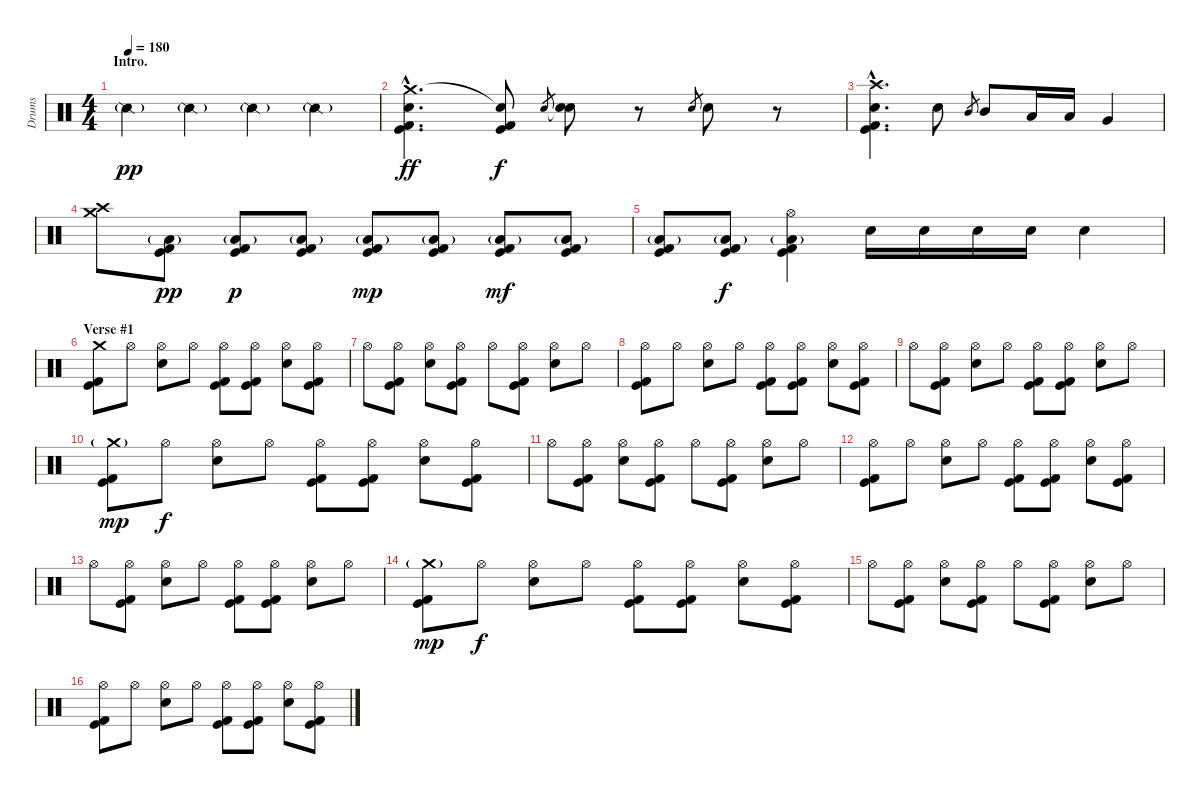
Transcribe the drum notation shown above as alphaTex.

\track ("Drums" "Drums") {instrument percussion}
\staff {score}
\articulation defaults
\ts (4 4)
\section ("" "Intro.")
\tempo 180
\clef neutral
\ks c "Snare (side stick) 2"{g}.4{dy pp} "Snare (side stick) 2"{g}.4 "Snare (side stick) 2"{g}.4 "Snare (side stick) 2"{g}.4
|
("Crash medium (hit)"{hac} "Electric Snare (hit)"{hac} "Kick (hit) 2"{hac} "Kick (hit)"{hac}).4{d dy ff} ("Snare (hit)"{t} "Kick (hit) 2" "Kick (hit)").8{dy f} "Electric Snare (hit)".8{gr} ("Snare (hit)"{t} "Electric Snare (hit)").8 r.8 "Electric Snare (hit)".8{gr} "Electric Snare (hit)".8 r.8 |
("Crash high (hit)"{hac} "Electric Snare (hit)"{hac} "Kick (hit) 2"{hac} "Kick (hit)"{hac}).4{d} "Electric Snare (hit)".8 "Mid Tom (hit)".8{gr} "Mid Tom (hit)".8 "Low Tom (hit)".16 "Low Tom (hit)".16 "Very Low Tom (hit)".4 |
("Crash medium (hit)" "Crash high (hit)").8 ("Low Floor Tom (hit)"{g} "Kick (hit) 2" "Kick (hit)").8{dy pp} ("Low Floor Tom (hit)"{g} "Kick (hit) 2" "Kick (hit)").8{dy p} ("Low Floor Tom (hit)"{g} "Kick (hit) 2" "Kick (hit)").8 ("Low Floor Tom (hit)"{g} "Kick (hit) 2" "Kick (hit)").8{dy mp} ("Low Floor Tom (hit)"{g} "Kick (hit) 2" "Kick (hit)").8 ("Low Floor Tom (hit)"{g} "Kick (hit) 2" "Kick (hit)").8{dy mf} ("Low Floor Tom (hit)"{g} "Kick (hit) 2" "Kick (hit)").8 |
("Low Floor Tom (hit)"{g} "Kick (hit) 2" "Kick (hit)").8 ("Low Floor Tom (hit)"{g} "Kick (hit) 2" "Kick (hit)").8{dy f} ("Hi-Hat (open)" "Low Floor Tom (hit)"{g} "Kick (hit) 2" "Kick (hit)").4 "Electric Snare (hit)".16 "Electric Snare (hit)".16 "Electric Snare (hit)".16 "Electric Snare (hit)".16 "Electric Snare (hit)".4 |
\section ("" "Verse #1")
("Crash medium (hit)" "Kick (hit) 2" "Kick (hit)").8 "Hi-Hat (open)".8 ("Hi-Hat (open)" "Electric Snare (hit)").8 "Hi-Hat (open)".8 ("Hi-Hat (open)" "Kick (hit) 2" "Kick (hit)").8 ("Hi-Hat (open)" "Kick (hit) 2" "Kick (hit)").8 ("Hi-Hat (open)" "Electric Snare (hit)").8 ("Hi-Hat (open)" "Kick (hit) 2" "Kick (hit)").8 |
"Hi-Hat (open)".8 ("Hi-Hat (open)" "Kick (hit) 2" "Kick (hit)").8 ("Hi-Hat (open)" "Electric Snare (hit)").8 ("Hi-Hat (open)" "Kick (hit) 2" "Kick (hit)").8 "Hi-Hat (open)".8 ("Hi-Hat (open)" "Kick (hit) 2" "Kick (hit)").8 ("Hi-Hat (open)" "Electric Snare (hit)").8 "Hi-Hat (open)".8 |
("Hi-Hat (open)" "Kick (hit) 2" "Kick (hit)").8 "Hi-Hat (open)".8 ("Hi-Hat (open)" "Electric Snare (hit)").8 "Hi-Hat (open)".8 ("Hi-Hat (open)" "Kick (hit) 2" "Kick (hit)").8 ("Hi-Hat (open)" "Kick (hit) 2" "Kick (hit)").8 ("Hi-Hat (open)" "Electric Snare (hit)").8 ("Hi-Hat (open)" "Kick (hit) 2" "Kick (hit)").8 |
"Hi-Hat (open)".8 ("Hi-Hat (open)" "Kick (hit) 2" "Kick (hit)").8 ("Hi-Hat (open)" "Electric Snare (hit)").8 "Hi-Hat (open)".8 ("Hi-Hat (open)" "Kick (hit) 2" "Kick (hit)").8 ("Hi-Hat (open)" "Kick (hit) 2" "Kick (hit)").8 ("Hi-Hat (open)" "Electric Snare (hit)").8 "Hi-Hat (open)".8 |
("Crash medium (hit)"{g} "Kick (hit) 2" "Kick (hit)").8{dy mp} "Hi-Hat (open)".8{dy f} ("Hi-Hat (open)" "Electric Snare (hit)").8 "Hi-Hat (open)".8 ("Hi-Hat (open)" "Kick (hit) 2" "Kick (hit)").8 ("Hi-Hat (open)" "Kick (hit) 2" "Kick (hit)").8 ("Hi-Hat (open)" "Electric Snare (hit)").8 ("Hi-Hat (open)" "Kick (hit) 2" "Kick (hit)").8 |
"Hi-Hat (open)".8 ("Hi-Hat (open)" "Kick (hit) 2" "Kick (hit)").8 ("Hi-Hat (open)" "Electric Snare (hit)").8 ("Hi-Hat (open)" "Kick (hit) 2" "Kick (hit)").8 "Hi-Hat (open)".8 ("Hi-Hat (open)" "Kick (hit) 2" "Kick (hit)").8 ("Hi-Hat (open)" "Electric Snare (hit)").8 "Hi-Hat (open)".8 |
("Hi-Hat (open)" "Kick (hit) 2" "Kick (hit)").8 "Hi-Hat (open)".8 ("Hi-Hat (open)" "Electric Snare (hit)").8 "Hi-Hat (open)".8 ("Hi-Hat (open)" "Kick (hit) 2" "Kick (hit)").8 ("Hi-Hat (open)" "Kick (hit) 2" "Kick (hit)").8 ("Hi-Hat (open)" "Electric Snare (hit)").8 ("Hi-Hat (open)" "Kick (hit) 2" "Kick (hit)").8 |
"Hi-Hat (open)".8 ("Hi-Hat (open)" "Kick (hit) 2" "Kick (hit)").8 ("Hi-Hat (open)" "Electric Snare (hit)").8 "Hi-Hat (open)".8 ("Hi-Hat (open)" "Kick (hit) 2" "Kick (hit)").8 ("Hi-Hat (open)" "Kick (hit) 2" "Kick (hit)").8 ("Hi-Hat (open)" "Electric Snare (hit)").8 "Hi-Hat (open)".8 |
("Crash medium (hit)"{g} "Kick (hit) 2" "Kick (hit)").8{dy mp} "Hi-Hat (open)".8{dy f} ("Hi-Hat (open)" "Electric Snare (hit)").8 "Hi-Hat (open)".8 ("Hi-Hat (open)" "Kick (hit) 2" "Kick (hit)").8 ("Hi-Hat (open)" "Kick (hit) 2" "Kick (hit)").8 ("Hi-Hat (open)" "Electric Snare (hit)").8 ("Hi-Hat (open)" "Kick (hit) 2" "Kick (hit)").8 |
"Hi-Hat (open)".8 ("Hi-Hat (open)" "Kick (hit) 2" "Kick (hit)").8 ("Hi-Hat (open)" "Electric Snare (hit)").8 ("Hi-Hat (open)" "Kick (hit) 2" "Kick (hit)").8 "Hi-Hat (open)".8 ("Hi-Hat (open)" "Kick (hit) 2" "Kick (hit)").8 ("Hi-Hat (open)" "Electric Snare (hit)").8 "Hi-Hat (open)".8 |
("Hi-Hat (open)" "Kick (hit) 2" "Kick (hit)").8 "Hi-Hat (open)".8 ("Hi-Hat (open)" "Electric Snare (hit)").8 "Hi-Hat (open)".8 ("Hi-Hat (open)" "Kick (hit) 2" "Kick (hit)").8 ("Hi-Hat (open)" "Kick (hit) 2" "Kick (hit)").8 ("Hi-Hat (open)" "Electric Snare (hit)").8 ("Hi-Hat (open)" "Kick (hit) 2" "Kick (hit)").8
